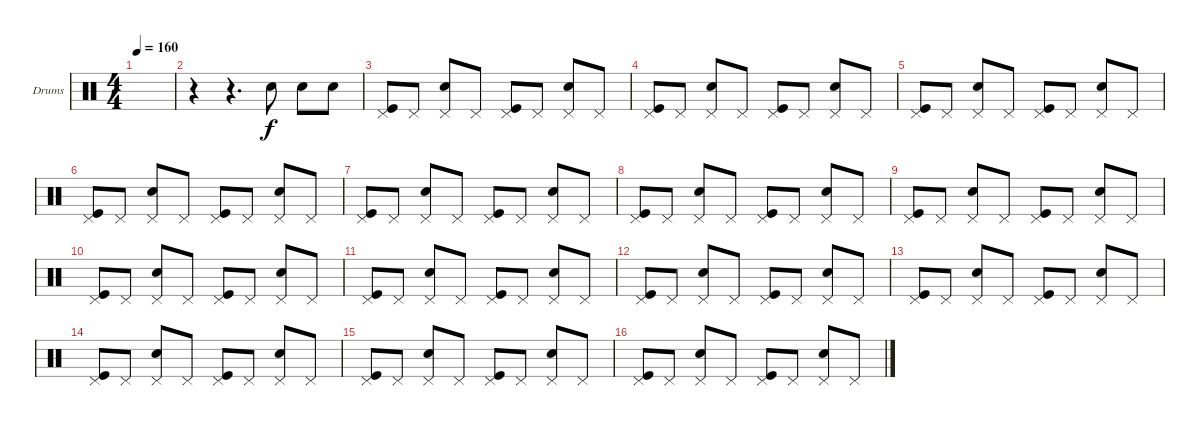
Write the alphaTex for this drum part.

\defaultSystemsLayout 4
\bracketExtendMode groupsimilarinstruments
\firstSystemTrackNameOrientation horizontal
\otherSystemsTrackNameOrientation horizontal
\track ("Drums" "Drums") {instrument percussion}
\staff {score}
\articulation defaults
\ts (4 4)
\tempo 160
\clef neutral
\ks c
|
r.4 r.4{d} "Snare (hit) 2".8 "Snare (hit) 2".8 "Snare (hit) 2".8 |
("Pedal Hi-Hat (hit)" "Kick (hit)").8 "Pedal Hi-Hat (hit)".8 ("Pedal Hi-Hat (hit)" "Snare (hit) 2").8 "Pedal Hi-Hat (hit)".8 ("Pedal Hi-Hat (hit)" "Kick (hit)").8 "Pedal Hi-Hat (hit)".8 ("Pedal Hi-Hat (hit)" "Snare (hit) 2").8 "Pedal Hi-Hat (hit)".8 |
("Pedal Hi-Hat (hit)" "Kick (hit)").8 "Pedal Hi-Hat (hit)".8 ("Pedal Hi-Hat (hit)" "Snare (hit) 2").8 "Pedal Hi-Hat (hit)".8 ("Pedal Hi-Hat (hit)" "Kick (hit)").8 "Pedal Hi-Hat (hit)".8 ("Pedal Hi-Hat (hit)" "Snare (hit) 2").8 "Pedal Hi-Hat (hit)".8 |
("Pedal Hi-Hat (hit)" "Kick (hit)").8 "Pedal Hi-Hat (hit)".8 ("Pedal Hi-Hat (hit)" "Snare (hit) 2").8 "Pedal Hi-Hat (hit)".8 ("Pedal Hi-Hat (hit)" "Kick (hit)").8 "Pedal Hi-Hat (hit)".8 ("Pedal Hi-Hat (hit)" "Snare (hit) 2").8 "Pedal Hi-Hat (hit)".8 |
("Pedal Hi-Hat (hit)" "Kick (hit)").8 "Pedal Hi-Hat (hit)".8 ("Pedal Hi-Hat (hit)" "Snare (hit) 2").8 "Pedal Hi-Hat (hit)".8 ("Pedal Hi-Hat (hit)" "Kick (hit)").8 "Pedal Hi-Hat (hit)".8 ("Pedal Hi-Hat (hit)" "Snare (hit) 2").8 "Pedal Hi-Hat (hit)".8 |
("Pedal Hi-Hat (hit)" "Kick (hit)").8 "Pedal Hi-Hat (hit)".8 ("Pedal Hi-Hat (hit)" "Snare (hit) 2").8 "Pedal Hi-Hat (hit)".8 ("Pedal Hi-Hat (hit)" "Kick (hit)").8 "Pedal Hi-Hat (hit)".8 ("Pedal Hi-Hat (hit)" "Snare (hit) 2").8 "Pedal Hi-Hat (hit)".8 |
("Pedal Hi-Hat (hit)" "Kick (hit)").8 "Pedal Hi-Hat (hit)".8 ("Pedal Hi-Hat (hit)" "Snare (hit) 2").8 "Pedal Hi-Hat (hit)".8 ("Pedal Hi-Hat (hit)" "Kick (hit)").8 "Pedal Hi-Hat (hit)".8 ("Pedal Hi-Hat (hit)" "Snare (hit) 2").8 "Pedal Hi-Hat (hit)".8 |
("Pedal Hi-Hat (hit)" "Kick (hit)").8 "Pedal Hi-Hat (hit)".8 ("Pedal Hi-Hat (hit)" "Snare (hit) 2").8 "Pedal Hi-Hat (hit)".8 ("Pedal Hi-Hat (hit)" "Kick (hit)").8 "Pedal Hi-Hat (hit)".8 ("Pedal Hi-Hat (hit)" "Snare (hit) 2").8 "Pedal Hi-Hat (hit)".8 |
("Pedal Hi-Hat (hit)" "Kick (hit)").8 "Pedal Hi-Hat (hit)".8 ("Pedal Hi-Hat (hit)" "Snare (hit) 2").8 "Pedal Hi-Hat (hit)".8 ("Pedal Hi-Hat (hit)" "Kick (hit)").8 "Pedal Hi-Hat (hit)".8 ("Pedal Hi-Hat (hit)" "Snare (hit) 2").8 "Pedal Hi-Hat (hit)".8 |
("Pedal Hi-Hat (hit)" "Kick (hit)").8 "Pedal Hi-Hat (hit)".8 ("Pedal Hi-Hat (hit)" "Snare (hit) 2").8 "Pedal Hi-Hat (hit)".8 ("Pedal Hi-Hat (hit)" "Kick (hit)").8 "Pedal Hi-Hat (hit)".8 ("Pedal Hi-Hat (hit)" "Snare (hit) 2").8 "Pedal Hi-Hat (hit)".8 |
("Pedal Hi-Hat (hit)" "Kick (hit)").8 "Pedal Hi-Hat (hit)".8 ("Pedal Hi-Hat (hit)" "Snare (hit) 2").8 "Pedal Hi-Hat (hit)".8 ("Pedal Hi-Hat (hit)" "Kick (hit)").8 "Pedal Hi-Hat (hit)".8 ("Pedal Hi-Hat (hit)" "Snare (hit) 2").8 "Pedal Hi-Hat (hit)".8 |
("Pedal Hi-Hat (hit)" "Kick (hit)").8 "Pedal Hi-Hat (hit)".8 ("Pedal Hi-Hat (hit)" "Snare (hit) 2").8 "Pedal Hi-Hat (hit)".8 ("Pedal Hi-Hat (hit)" "Kick (hit)").8 "Pedal Hi-Hat (hit)".8 ("Pedal Hi-Hat (hit)" "Snare (hit) 2").8 "Pedal Hi-Hat (hit)".8 |
("Pedal Hi-Hat (hit)" "Kick (hit)").8 "Pedal Hi-Hat (hit)".8 ("Pedal Hi-Hat (hit)" "Snare (hit) 2").8 "Pedal Hi-Hat (hit)".8 ("Pedal Hi-Hat (hit)" "Kick (hit)").8 "Pedal Hi-Hat (hit)".8 ("Pedal Hi-Hat (hit)" "Snare (hit) 2").8 "Pedal Hi-Hat (hit)".8 |
("Pedal Hi-Hat (hit)" "Kick (hit)").8 "Pedal Hi-Hat (hit)".8 ("Pedal Hi-Hat (hit)" "Snare (hit) 2").8 "Pedal Hi-Hat (hit)".8 ("Pedal Hi-Hat (hit)" "Kick (hit)").8 "Pedal Hi-Hat (hit)".8 ("Pedal Hi-Hat (hit)" "Snare (hit) 2").8 "Pedal Hi-Hat (hit)".8 |
("Pedal Hi-Hat (hit)" "Kick (hit)").8 "Pedal Hi-Hat (hit)".8 ("Pedal Hi-Hat (hit)" "Snare (hit) 2").8 "Pedal Hi-Hat (hit)".8 ("Pedal Hi-Hat (hit)" "Kick (hit)").8 "Pedal Hi-Hat (hit)".8 ("Pedal Hi-Hat (hit)" "Snare (hit) 2").8 "Pedal Hi-Hat (hit)".8
